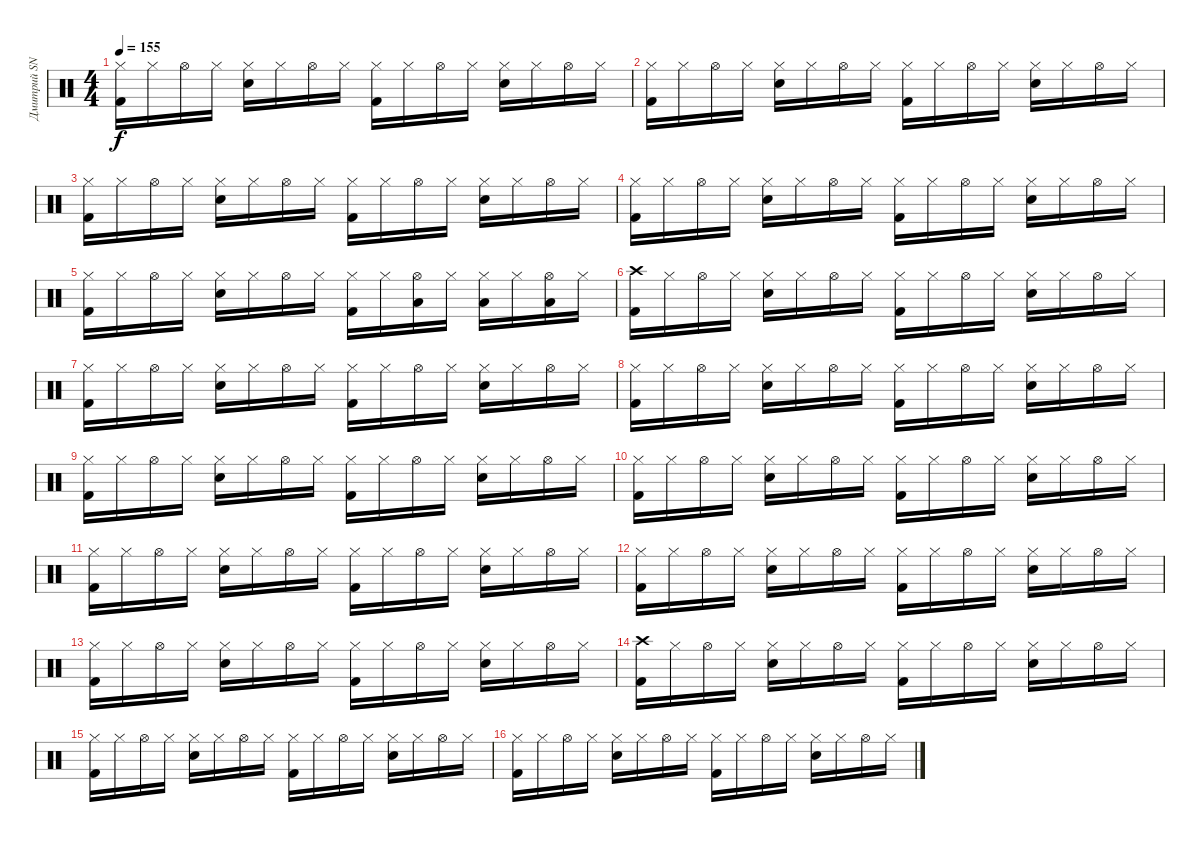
\track ("Дмитрий SNAKE Хакимов" "Дмитрий SN") {instrument percussion}
\staff {score}
\articulation defaults
\ts (4 4)
\tempo 155
\clef neutral
\ks c
("Hi-Hat (closed)" "Kick (hit) 2").16{dy f} "Hi-Hat (closed)".16 "Hi-Hat (open)".16 "Hi-Hat (closed)".16 ("Hi-Hat (closed)" "Snare (hit) 2").16 "Hi-Hat (closed)".16 "Hi-Hat (open)".16 "Hi-Hat (closed)".16 ("Hi-Hat (closed)" "Kick (hit) 2").16 "Hi-Hat (closed)".16 "Hi-Hat (open)".16 "Hi-Hat (closed)".16 ("Hi-Hat (closed)" "Snare (hit) 2").16 "Hi-Hat (closed)".16 "Hi-Hat (open)".16 "Hi-Hat (closed)".16 |
("Hi-Hat (closed)" "Kick (hit) 2").16 "Hi-Hat (closed)".16 "Hi-Hat (open)".16 "Hi-Hat (closed)".16 ("Hi-Hat (closed)" "Snare (hit) 2").16 "Hi-Hat (closed)".16 "Hi-Hat (open)".16 "Hi-Hat (closed)".16 ("Hi-Hat (closed)" "Kick (hit) 2").16 "Hi-Hat (closed)".16 "Hi-Hat (open)".16 "Hi-Hat (closed)".16 ("Hi-Hat (closed)" "Snare (hit) 2").16 "Hi-Hat (closed)".16 "Hi-Hat (open)".16 "Hi-Hat (closed)".16 |
("Hi-Hat (closed)" "Kick (hit) 2").16 "Hi-Hat (closed)".16 "Hi-Hat (open)".16 "Hi-Hat (closed)".16 ("Hi-Hat (closed)" "Snare (hit) 2").16 "Hi-Hat (closed)".16 "Hi-Hat (open)".16 "Hi-Hat (closed)".16 ("Hi-Hat (closed)" "Kick (hit) 2").16 "Hi-Hat (closed)".16 "Hi-Hat (open)".16 "Hi-Hat (closed)".16 ("Hi-Hat (closed)" "Snare (hit) 2").16 "Hi-Hat (closed)".16 "Hi-Hat (open)".16 "Hi-Hat (closed)".16 |
("Hi-Hat (closed)" "Kick (hit) 2").16 "Hi-Hat (closed)".16 "Hi-Hat (open)".16 "Hi-Hat (closed)".16 ("Hi-Hat (closed)" "Snare (hit) 2").16 "Hi-Hat (closed)".16 "Hi-Hat (open)".16 "Hi-Hat (closed)".16 ("Hi-Hat (closed)" "Kick (hit) 2").16 "Hi-Hat (closed)".16 "Hi-Hat (open)".16 "Hi-Hat (closed)".16 ("Hi-Hat (closed)" "Snare (hit) 2").16 "Hi-Hat (closed)".16 "Hi-Hat (open)".16 "Hi-Hat (closed)".16 |
("Hi-Hat (closed)" "Kick (hit) 2").16 "Hi-Hat (closed)".16 "Hi-Hat (open)".16 "Hi-Hat (closed)".16 ("Hi-Hat (closed)" "Snare (hit) 2").16 "Hi-Hat (closed)".16 "Hi-Hat (open)".16 "Hi-Hat (closed)".16 ("Hi-Hat (closed)" "Kick (hit) 2").16 "Hi-Hat (closed)".16 ("Hi-Hat (open)" "Low Tom (hit)").16 "Hi-Hat (closed)".16 ("Hi-Hat (closed)" "Low Tom (hit)").16 "Hi-Hat (closed)".16 ("Hi-Hat (open)" "Low Tom (hit)").16 "Hi-Hat (closed)".16 |
("Crash high (hit)" "Kick (hit) 2").16 "Hi-Hat (closed)".16 "Hi-Hat (open)".16 "Hi-Hat (closed)".16 ("Hi-Hat (closed)" "Snare (hit) 2").16 "Hi-Hat (closed)".16 "Hi-Hat (open)".16 "Hi-Hat (closed)".16 ("Hi-Hat (closed)" "Kick (hit) 2").16 "Hi-Hat (closed)".16 "Hi-Hat (open)".16 "Hi-Hat (closed)".16 ("Hi-Hat (closed)" "Snare (hit) 2").16 "Hi-Hat (closed)".16 "Hi-Hat (open)".16 "Hi-Hat (closed)".16 |
("Hi-Hat (closed)" "Kick (hit) 2").16 "Hi-Hat (closed)".16 "Hi-Hat (open)".16 "Hi-Hat (closed)".16 ("Hi-Hat (closed)" "Snare (hit) 2").16 "Hi-Hat (closed)".16 "Hi-Hat (open)".16 "Hi-Hat (closed)".16 ("Hi-Hat (closed)" "Kick (hit) 2").16 "Hi-Hat (closed)".16 "Hi-Hat (open)".16 "Hi-Hat (closed)".16 ("Hi-Hat (closed)" "Snare (hit) 2").16 "Hi-Hat (closed)".16 "Hi-Hat (open)".16 "Hi-Hat (closed)".16 |
("Hi-Hat (closed)" "Kick (hit) 2").16 "Hi-Hat (closed)".16 "Hi-Hat (open)".16 "Hi-Hat (closed)".16 ("Hi-Hat (closed)" "Snare (hit) 2").16 "Hi-Hat (closed)".16 "Hi-Hat (open)".16 "Hi-Hat (closed)".16 ("Hi-Hat (closed)" "Kick (hit) 2").16 "Hi-Hat (closed)".16 "Hi-Hat (open)".16 "Hi-Hat (closed)".16 ("Hi-Hat (closed)" "Snare (hit) 2").16 "Hi-Hat (closed)".16 "Hi-Hat (open)".16 "Hi-Hat (closed)".16 |
("Hi-Hat (closed)" "Kick (hit) 2").16 "Hi-Hat (closed)".16 "Hi-Hat (open)".16 "Hi-Hat (closed)".16 ("Hi-Hat (closed)" "Snare (hit) 2").16 "Hi-Hat (closed)".16 "Hi-Hat (open)".16 "Hi-Hat (closed)".16 ("Hi-Hat (closed)" "Kick (hit) 2").16 "Hi-Hat (closed)".16 "Hi-Hat (open)".16 "Hi-Hat (closed)".16 ("Hi-Hat (closed)" "Snare (hit) 2").16 "Hi-Hat (closed)".16 "Hi-Hat (open)".16 "Hi-Hat (closed)".16 |
("Hi-Hat (closed)" "Kick (hit) 2").16 "Hi-Hat (closed)".16 "Hi-Hat (open)".16 "Hi-Hat (closed)".16 ("Hi-Hat (closed)" "Snare (hit) 2").16 "Hi-Hat (closed)".16 "Hi-Hat (open)".16 "Hi-Hat (closed)".16 ("Hi-Hat (closed)" "Kick (hit) 2").16 "Hi-Hat (closed)".16 "Hi-Hat (open)".16 "Hi-Hat (closed)".16 ("Hi-Hat (closed)" "Snare (hit) 2").16 "Hi-Hat (closed)".16 "Hi-Hat (open)".16 "Hi-Hat (closed)".16 |
("Hi-Hat (closed)" "Kick (hit) 2").16 "Hi-Hat (closed)".16 "Hi-Hat (open)".16 "Hi-Hat (closed)".16 ("Hi-Hat (closed)" "Snare (hit) 2").16 "Hi-Hat (closed)".16 "Hi-Hat (open)".16 "Hi-Hat (closed)".16 ("Hi-Hat (closed)" "Kick (hit) 2").16 "Hi-Hat (closed)".16 "Hi-Hat (open)".16 "Hi-Hat (closed)".16 ("Hi-Hat (closed)" "Snare (hit) 2").16 "Hi-Hat (closed)".16 "Hi-Hat (open)".16 "Hi-Hat (closed)".16 |
("Hi-Hat (closed)" "Kick (hit) 2").16 "Hi-Hat (closed)".16 "Hi-Hat (open)".16 "Hi-Hat (closed)".16 ("Hi-Hat (closed)" "Snare (hit) 2").16 "Hi-Hat (closed)".16 "Hi-Hat (open)".16 "Hi-Hat (closed)".16 ("Hi-Hat (closed)" "Kick (hit) 2").16 "Hi-Hat (closed)".16 "Hi-Hat (open)".16 "Hi-Hat (closed)".16 ("Hi-Hat (closed)" "Snare (hit) 2").16 "Hi-Hat (closed)".16 "Hi-Hat (open)".16 "Hi-Hat (closed)".16 |
("Hi-Hat (closed)" "Kick (hit) 2").16 "Hi-Hat (closed)".16 "Hi-Hat (open)".16 "Hi-Hat (closed)".16 ("Hi-Hat (closed)" "Snare (hit) 2").16 "Hi-Hat (closed)".16 "Hi-Hat (open)".16 "Hi-Hat (closed)".16 ("Hi-Hat (closed)" "Kick (hit) 2").16 "Hi-Hat (closed)".16 "Hi-Hat (open)".16 "Hi-Hat (closed)".16 ("Hi-Hat (closed)" "Snare (hit) 2").16 "Hi-Hat (closed)".16 "Hi-Hat (open)".16 "Hi-Hat (closed)".16 |
("Crash high (hit)" "Kick (hit) 2").16 "Hi-Hat (closed)".16 "Hi-Hat (open)".16 "Hi-Hat (closed)".16 ("Hi-Hat (closed)" "Snare (hit) 2").16 "Hi-Hat (closed)".16 "Hi-Hat (open)".16 "Hi-Hat (closed)".16 ("Hi-Hat (closed)" "Kick (hit) 2").16 "Hi-Hat (closed)".16 "Hi-Hat (open)".16 "Hi-Hat (closed)".16 ("Hi-Hat (closed)" "Snare (hit) 2").16 "Hi-Hat (closed)".16 "Hi-Hat (open)".16 "Hi-Hat (closed)".16 |
("Hi-Hat (closed)" "Kick (hit) 2").16 "Hi-Hat (closed)".16 "Hi-Hat (open)".16 "Hi-Hat (closed)".16 ("Hi-Hat (closed)" "Snare (hit) 2").16 "Hi-Hat (closed)".16 "Hi-Hat (open)".16 "Hi-Hat (closed)".16 ("Hi-Hat (closed)" "Kick (hit) 2").16 "Hi-Hat (closed)".16 "Hi-Hat (open)".16 "Hi-Hat (closed)".16 ("Hi-Hat (closed)" "Snare (hit) 2").16 "Hi-Hat (closed)".16 "Hi-Hat (open)".16 "Hi-Hat (closed)".16 |
("Hi-Hat (closed)" "Kick (hit) 2").16 "Hi-Hat (closed)".16 "Hi-Hat (open)".16 "Hi-Hat (closed)".16 ("Hi-Hat (closed)" "Snare (hit) 2").16 "Hi-Hat (closed)".16 "Hi-Hat (open)".16 "Hi-Hat (closed)".16 ("Hi-Hat (closed)" "Kick (hit) 2").16 "Hi-Hat (closed)".16 "Hi-Hat (open)".16 "Hi-Hat (closed)".16 ("Hi-Hat (closed)" "Snare (hit) 2").16 "Hi-Hat (closed)".16 "Hi-Hat (open)".16 "Hi-Hat (closed)".16
